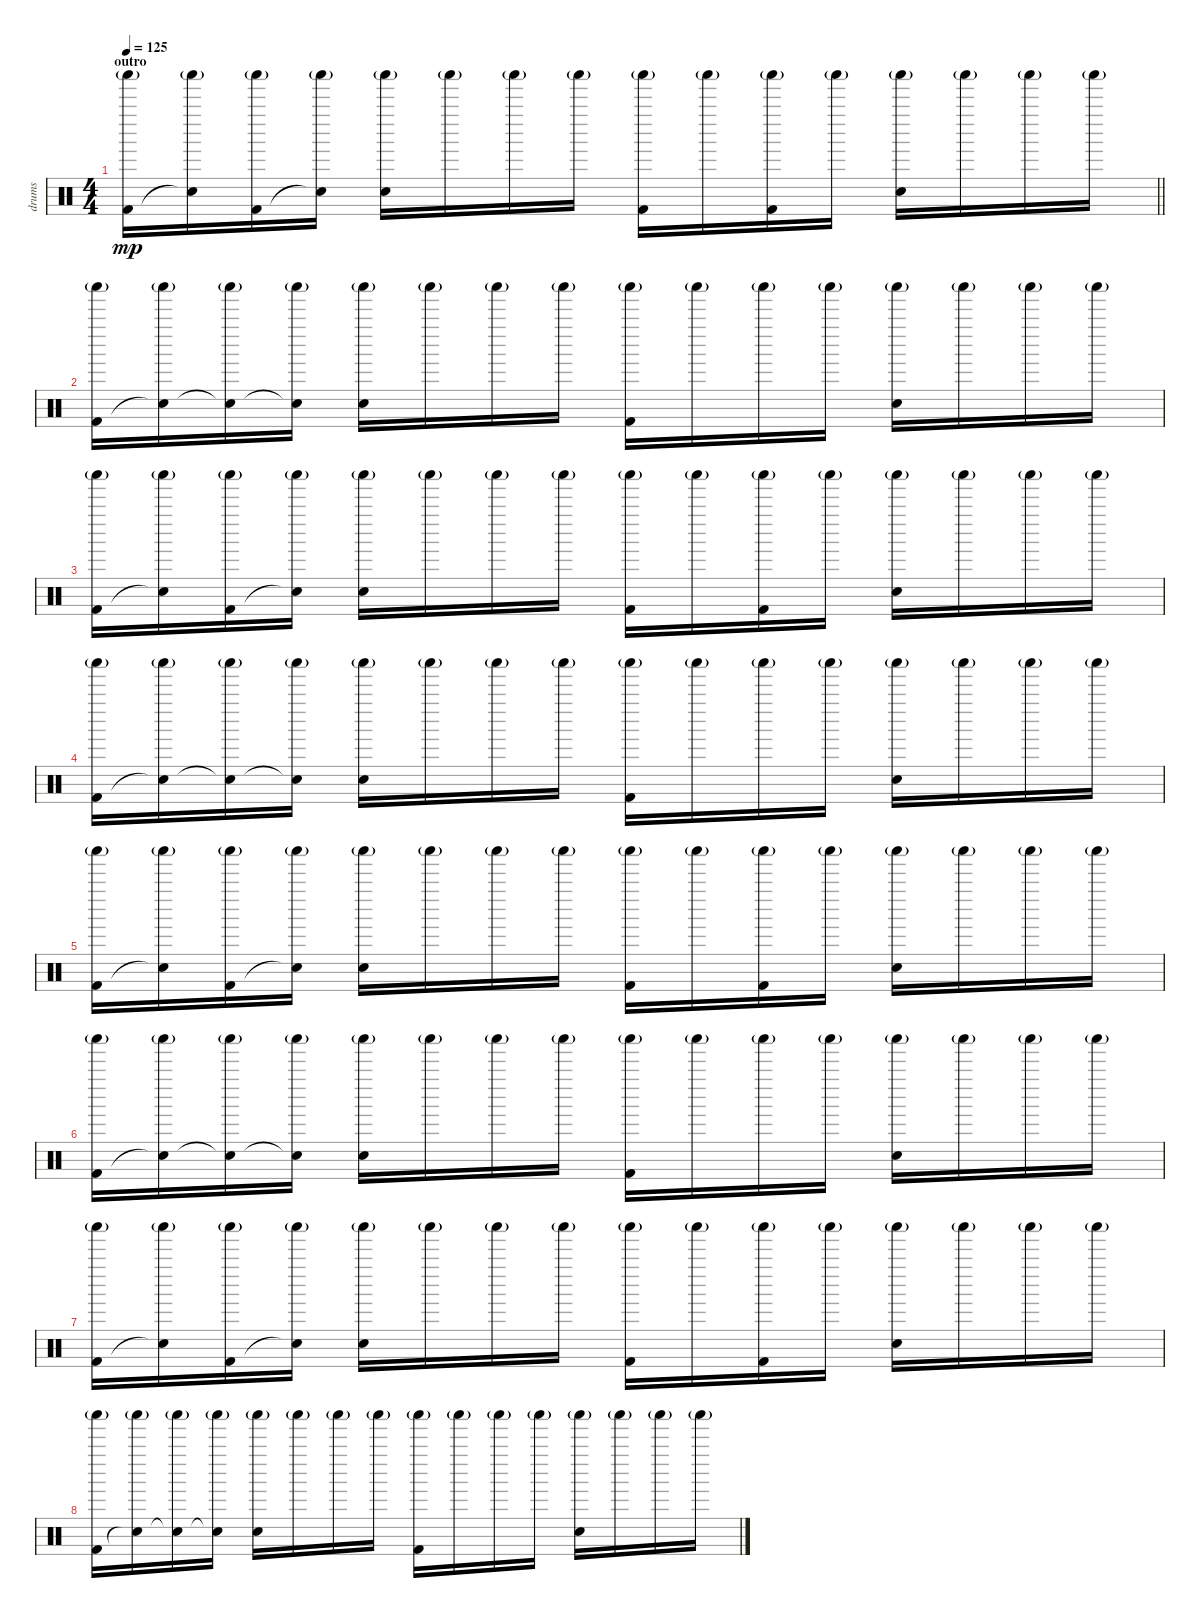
\track ("drums" "drums") {instrument percussion}
\staff {score}
\articulation defaults
\ts (4 4)
\section ("" "outro")
\tempo 125
\clef neutral
\barLineRight lightlight
\ks c
("Shaker (hit)"{g} "Kick (hit) 2").16{dy mp} ("Shaker (hit)"{g} "Snare (hit)"{t}).16 ("Shaker (hit)"{g} "Kick (hit) 2").16 ("Shaker (hit)"{g} "Snare (hit)"{t}).16 ("Shaker (hit)"{g} "Snare (hit) 2").16 "Shaker (hit)"{g}.16 "Shaker (hit)"{g}.16 "Shaker (hit)"{g}.16 ("Shaker (hit)"{g} "Kick (hit) 2").16 "Shaker (hit)"{g}.16 ("Shaker (hit)"{g} "Kick (hit) 2").16 "Shaker (hit)"{g}.16 ("Shaker (hit)"{g} "Snare (hit) 2").16 "Shaker (hit)"{g}.16 "Shaker (hit)"{g}.16 "Shaker (hit)"{g}.16 |
("Shaker (hit)"{g} "Kick (hit) 2").16 ("Shaker (hit)"{g} "Snare (hit)"{t}).16 ("Shaker (hit)"{g} "Snare (hit)"{t}).16 ("Shaker (hit)"{g} "Snare (hit)"{t}).16 ("Shaker (hit)"{g} "Snare (hit) 2").16 "Shaker (hit)"{g}.16 "Shaker (hit)"{g}.16 "Shaker (hit)"{g}.16 ("Shaker (hit)"{g} "Kick (hit) 2").16 "Shaker (hit)"{g}.16 "Shaker (hit)"{g}.16 "Shaker (hit)"{g}.16 ("Shaker (hit)"{g} "Snare (hit) 2").16 "Shaker (hit)"{g}.16 "Shaker (hit)"{g}.16 "Shaker (hit)"{g}.16 |
("Shaker (hit)"{g} "Kick (hit) 2").16 ("Shaker (hit)"{g} "Snare (hit)"{t}).16 ("Shaker (hit)"{g} "Kick (hit) 2").16 ("Shaker (hit)"{g} "Snare (hit)"{t}).16 ("Shaker (hit)"{g} "Snare (hit) 2").16 "Shaker (hit)"{g}.16 "Shaker (hit)"{g}.16 "Shaker (hit)"{g}.16 ("Shaker (hit)"{g} "Kick (hit) 2").16 "Shaker (hit)"{g}.16 ("Shaker (hit)"{g} "Kick (hit) 2").16 "Shaker (hit)"{g}.16 ("Shaker (hit)"{g} "Snare (hit) 2").16 "Shaker (hit)"{g}.16 "Shaker (hit)"{g}.16 "Shaker (hit)"{g}.16 |
("Shaker (hit)"{g} "Kick (hit) 2").16 ("Shaker (hit)"{g} "Snare (hit)"{t}).16 ("Shaker (hit)"{g} "Snare (hit)"{t}).16 ("Shaker (hit)"{g} "Snare (hit)"{t}).16 ("Shaker (hit)"{g} "Snare (hit) 2").16 "Shaker (hit)"{g}.16 "Shaker (hit)"{g}.16 "Shaker (hit)"{g}.16 ("Shaker (hit)"{g} "Kick (hit) 2").16 "Shaker (hit)"{g}.16 "Shaker (hit)"{g}.16 "Shaker (hit)"{g}.16 ("Shaker (hit)"{g} "Snare (hit) 2").16 "Shaker (hit)"{g}.16 "Shaker (hit)"{g}.16 "Shaker (hit)"{g}.16 |
("Shaker (hit)"{g} "Kick (hit) 2").16 ("Shaker (hit)"{g} "Snare (hit)"{t}).16 ("Shaker (hit)"{g} "Kick (hit) 2").16 ("Shaker (hit)"{g} "Snare (hit)"{t}).16 ("Shaker (hit)"{g} "Snare (hit) 2").16 "Shaker (hit)"{g}.16 "Shaker (hit)"{g}.16 "Shaker (hit)"{g}.16 ("Shaker (hit)"{g} "Kick (hit) 2").16 "Shaker (hit)"{g}.16 ("Shaker (hit)"{g} "Kick (hit) 2").16 "Shaker (hit)"{g}.16 ("Shaker (hit)"{g} "Snare (hit) 2").16 "Shaker (hit)"{g}.16 "Shaker (hit)"{g}.16 "Shaker (hit)"{g}.16 |
("Shaker (hit)"{g} "Kick (hit) 2").16 ("Shaker (hit)"{g} "Snare (hit)"{t}).16 ("Shaker (hit)"{g} "Snare (hit)"{t}).16 ("Shaker (hit)"{g} "Snare (hit)"{t}).16 ("Shaker (hit)"{g} "Snare (hit) 2").16 "Shaker (hit)"{g}.16 "Shaker (hit)"{g}.16 "Shaker (hit)"{g}.16 ("Shaker (hit)"{g} "Kick (hit) 2").16 "Shaker (hit)"{g}.16 "Shaker (hit)"{g}.16 "Shaker (hit)"{g}.16 ("Shaker (hit)"{g} "Snare (hit) 2").16 "Shaker (hit)"{g}.16 "Shaker (hit)"{g}.16 "Shaker (hit)"{g}.16 |
("Shaker (hit)"{g} "Kick (hit) 2").16 ("Shaker (hit)"{g} "Snare (hit)"{t}).16 ("Shaker (hit)"{g} "Kick (hit) 2").16 ("Shaker (hit)"{g} "Snare (hit)"{t}).16 ("Shaker (hit)"{g} "Snare (hit) 2").16 "Shaker (hit)"{g}.16 "Shaker (hit)"{g}.16 "Shaker (hit)"{g}.16 ("Shaker (hit)"{g} "Kick (hit) 2").16 "Shaker (hit)"{g}.16 ("Shaker (hit)"{g} "Kick (hit) 2").16 "Shaker (hit)"{g}.16 ("Shaker (hit)"{g} "Snare (hit) 2").16 "Shaker (hit)"{g}.16 "Shaker (hit)"{g}.16 "Shaker (hit)"{g}.16 |
("Shaker (hit)"{g} "Kick (hit) 2").16 ("Shaker (hit)"{g} "Snare (hit)"{t}).16 ("Shaker (hit)"{g} "Snare (hit)"{t}).16 ("Shaker (hit)"{g} "Snare (hit)"{t}).16 ("Shaker (hit)"{g} "Snare (hit) 2").16 "Shaker (hit)"{g}.16 "Shaker (hit)"{g}.16 "Shaker (hit)"{g}.16 ("Shaker (hit)"{g} "Kick (hit) 2").16 "Shaker (hit)"{g}.16 "Shaker (hit)"{g}.16 "Shaker (hit)"{g}.16 ("Shaker (hit)"{g} "Snare (hit) 2").16 "Shaker (hit)"{g}.16 "Shaker (hit)"{g}.16 "Shaker (hit)"{g}.16
